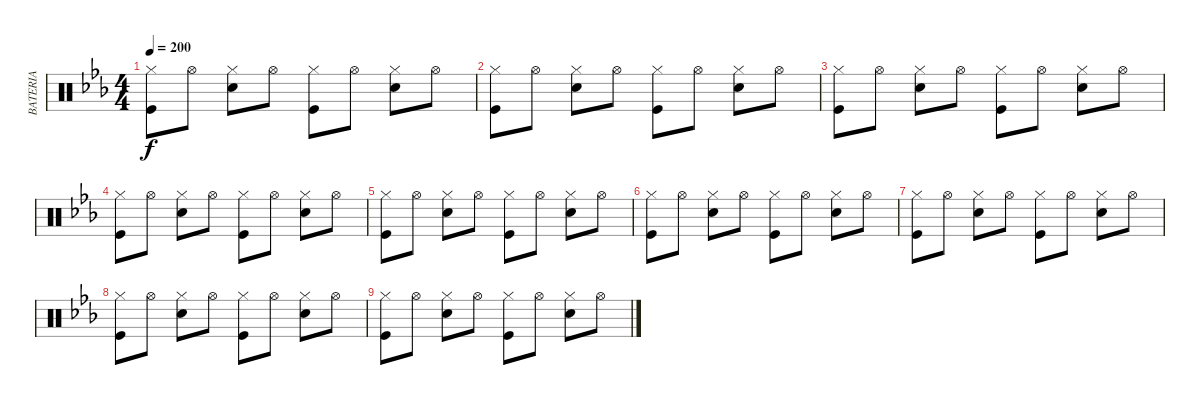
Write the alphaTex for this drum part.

\track ("BATERIA" "BATERIA") {instrument percussion}
\staff {score}
\articulation defaults
\ts (4 4)
\tempo 200
\clef neutral
\ks cminor
("Kick (hit)" "Hi-Hat (closed)").8{dy f} "Hi-Hat (open)".8 ("Hi-Hat (closed)" "Snare (hit) 2").8 "Hi-Hat (open)".8 ("Kick (hit)" "Hi-Hat (closed)").8 "Hi-Hat (open)".8 ("Hi-Hat (closed)" "Snare (hit) 2").8 "Hi-Hat (open)".8 |
("Kick (hit)" "Hi-Hat (closed)").8 "Hi-Hat (open)".8 ("Hi-Hat (closed)" "Snare (hit) 2").8 "Hi-Hat (open)".8 ("Kick (hit)" "Hi-Hat (closed)").8 "Hi-Hat (open)".8 ("Hi-Hat (closed)" "Snare (hit) 2").8 "Hi-Hat (open)".8 |
("Kick (hit)" "Hi-Hat (closed)").8 "Hi-Hat (open)".8 ("Hi-Hat (closed)" "Snare (hit) 2").8 "Hi-Hat (open)".8 ("Kick (hit)" "Hi-Hat (closed)").8 "Hi-Hat (open)".8 ("Hi-Hat (closed)" "Snare (hit) 2").8 "Hi-Hat (open)".8 |
("Kick (hit)" "Hi-Hat (closed)").8 "Hi-Hat (open)".8 ("Hi-Hat (closed)" "Snare (hit) 2").8 "Hi-Hat (open)".8 ("Kick (hit)" "Hi-Hat (closed)").8 "Hi-Hat (open)".8 ("Hi-Hat (closed)" "Snare (hit) 2").8 "Hi-Hat (open)".8 |
("Kick (hit)" "Hi-Hat (closed)").8 "Hi-Hat (open)".8 ("Hi-Hat (closed)" "Snare (hit) 2").8 "Hi-Hat (open)".8 ("Kick (hit)" "Hi-Hat (closed)").8 "Hi-Hat (open)".8 ("Hi-Hat (closed)" "Snare (hit) 2").8 "Hi-Hat (open)".8 |
("Kick (hit)" "Hi-Hat (closed)").8 "Hi-Hat (open)".8 ("Hi-Hat (closed)" "Snare (hit) 2").8 "Hi-Hat (open)".8 ("Kick (hit)" "Hi-Hat (closed)").8 "Hi-Hat (open)".8 ("Hi-Hat (closed)" "Snare (hit) 2").8 "Hi-Hat (open)".8 |
("Kick (hit)" "Hi-Hat (closed)").8 "Hi-Hat (open)".8 ("Hi-Hat (closed)" "Snare (hit) 2").8 "Hi-Hat (open)".8 ("Kick (hit)" "Hi-Hat (closed)").8 "Hi-Hat (open)".8 ("Hi-Hat (closed)" "Snare (hit) 2").8 "Hi-Hat (open)".8 |
("Kick (hit)" "Hi-Hat (closed)").8 "Hi-Hat (open)".8 ("Hi-Hat (closed)" "Snare (hit) 2").8 "Hi-Hat (open)".8 ("Kick (hit)" "Hi-Hat (closed)").8 "Hi-Hat (open)".8 ("Hi-Hat (closed)" "Snare (hit) 2").8 "Hi-Hat (open)".8 |
("Kick (hit)" "Hi-Hat (closed)").8 "Hi-Hat (open)".8 ("Hi-Hat (closed)" "Snare (hit) 2").8 "Hi-Hat (open)".8 ("Kick (hit)" "Hi-Hat (closed)").8 "Hi-Hat (open)".8 ("Hi-Hat (closed)" "Snare (hit) 2").8 "Hi-Hat (open)".8
